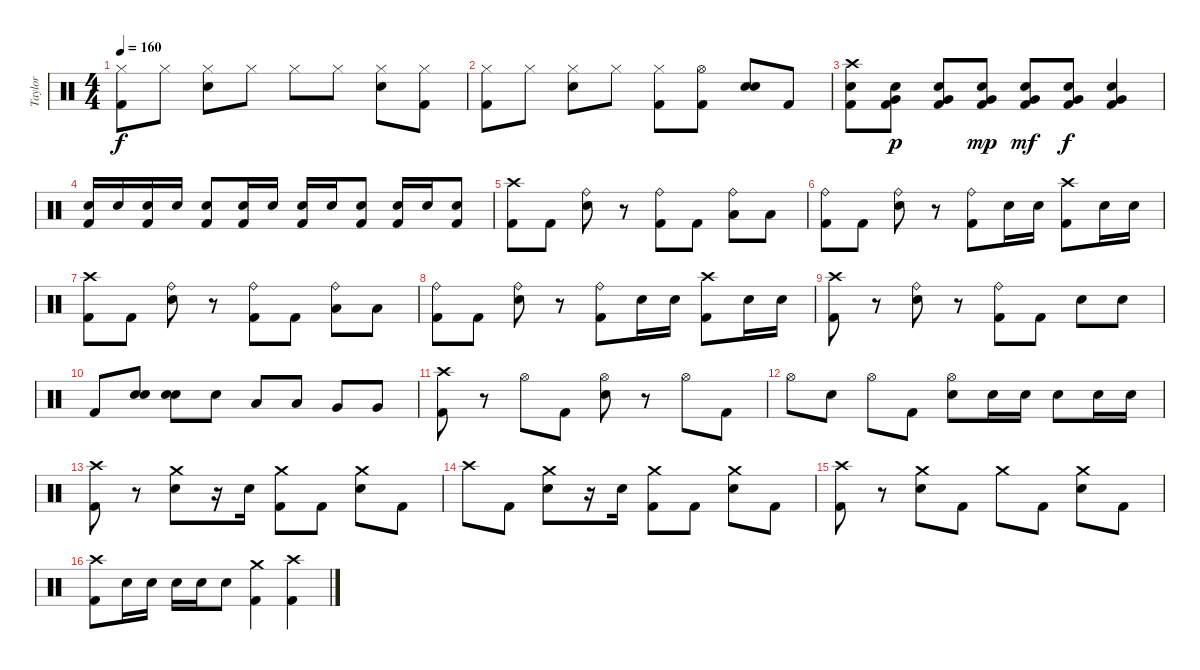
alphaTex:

\track ("Taylor" "Taylor") {instrument percussion}
\staff {score}
\articulation defaults
\ts (4 4)
\tempo 160
\clef neutral
\ks c
("Hi-Hat (closed)" "Kick (hit) 2").8{dy f} "Hi-Hat (closed)".8 ("Hi-Hat (closed)" "Electric Snare (hit)").8 "Hi-Hat (closed)".8 "Hi-Hat (closed)".8 "Hi-Hat (closed)".8 ("Hi-Hat (closed)" "Electric Snare (hit)").8 ("Hi-Hat (closed)" "Kick (hit) 2").8 |
("Hi-Hat (closed)" "Kick (hit) 2").8 "Hi-Hat (closed)".8 ("Hi-Hat (closed)" "Electric Snare (hit)").8 "Hi-Hat (closed)".8 ("Hi-Hat (closed)" "Kick (hit) 2").8 ("Hi-Hat (open)" "Kick (hit) 2").8 ("Electric Snare (hit)" "Electric Snare (hit)").8 "Kick (hit) 2".8 |
("Crash high (hit)" "Electric Snare (hit)" "Kick (hit) 2").8 ("Electric Snare (hit)" "Very Low Tom (hit)" "Kick (hit) 2").8{dy p} ("Electric Snare (hit)" "Very Low Tom (hit)" "Kick (hit) 2").8 ("Electric Snare (hit)" "Very Low Tom (hit)" "Kick (hit) 2").8{dy mp} ("Electric Snare (hit)" "Very Low Tom (hit)" "Kick (hit) 2").8{dy mf} ("Electric Snare (hit)" "Very Low Tom (hit)" "Kick (hit) 2").8{dy f} ("Electric Snare (hit)" "Very Low Tom (hit)" "Kick (hit) 2").4 |
("Electric Snare (hit)" "Kick (hit) 2").16 "Electric Snare (hit)".16 ("Electric Snare (hit)" "Kick (hit) 2").16 "Electric Snare (hit)".16 ("Electric Snare (hit)" "Kick (hit) 2").8 ("Electric Snare (hit)" "Kick (hit) 2").16 "Electric Snare (hit)".16 ("Electric Snare (hit)" "Kick (hit) 2").16 "Electric Snare (hit)".16 ("Electric Snare (hit)" "Kick (hit) 2").8 ("Electric Snare (hit)" "Kick (hit) 2").16 "Electric Snare (hit)".16 ("Electric Snare (hit)" "Kick (hit) 2").8 |
("Crash high (hit)" "Kick (hit) 2").8 "Kick (hit) 2".8 ("Ride (bell)" "Electric Snare (hit)").8 r.8 ("Ride (bell)" "Kick (hit) 2").8 "Kick (hit) 2".8 ("Ride (bell)" "Low Tom (hit)").8 "Low Tom (hit)".8 |
("Ride (bell)" "Kick (hit) 2").8 "Kick (hit) 2".8 ("Ride (bell)" "Electric Snare (hit)").8 r.8 ("Ride (bell)" "Kick (hit) 2").8 "Electric Snare (hit)".16 "Electric Snare (hit)".16 ("Crash high (hit)" "Kick (hit) 2").8 "Electric Snare (hit)".16 "Electric Snare (hit)".16 |
("Crash high (hit)" "Kick (hit) 2").8 "Kick (hit) 2".8 ("Ride (bell)" "Electric Snare (hit)").8 r.8 ("Ride (bell)" "Kick (hit) 2").8 "Kick (hit) 2".8 ("Ride (bell)" "Low Tom (hit)").8 "Low Tom (hit)".8 |
("Ride (bell)" "Kick (hit) 2").8 "Kick (hit) 2".8 ("Ride (bell)" "Electric Snare (hit)").8 r.8 ("Ride (bell)" "Kick (hit) 2").8 "Electric Snare (hit)".16 "Electric Snare (hit)".16 ("Crash high (hit)" "Kick (hit) 2").8 "Electric Snare (hit)".16 "Electric Snare (hit)".16 |
("Crash high (hit)" "Kick (hit) 2").8 r.8 ("Ride (bell)" "Electric Snare (hit)").8 r.8 ("Ride (bell)" "Kick (hit) 2").8 "Kick (hit) 2".8 "Electric Snare (hit)".8 "Electric Snare (hit)".8 |
"Kick (hit) 2".8 ("Electric Snare (hit)" "Electric Snare (hit)").8 ("Electric Snare (hit)" "Electric Snare (hit)").8 "Electric Snare (hit)".8 "Low Tom (hit)".8 "Low Tom (hit)".8 "Very Low Tom (hit)".8 "Very Low Tom (hit)".8 |
("Crash high (hit)" "Kick (hit) 2").8 r.8 "Hi-Hat (open)".8 "Kick (hit) 2".8 ("Hi-Hat (open)" "Electric Snare (hit)").8 r.8 "Hi-Hat (open)".8 "Kick (hit) 2".8 |
"Hi-Hat (open)".8 "Electric Snare (hit)".8 "Hi-Hat (open)".8 "Kick (hit) 2".8 ("Hi-Hat (open)" "Electric Snare (hit)").8 "Electric Snare (hit)".16 "Electric Snare (hit)".16 "Electric Snare (hit)".8 "Electric Snare (hit)".16 "Electric Snare (hit)".16 |
("Crash high (hit)" "Kick (hit) 2").8 r.8 ("Crash medium (hit)" "Electric Snare (hit)").8 r.16 "Electric Snare (hit)".16 ("Crash medium (hit)" "Kick (hit) 2").8 "Kick (hit) 2".8 ("Crash medium (hit)" "Electric Snare (hit)").8 "Kick (hit) 2".8 |
"Crash high (hit)".8 "Kick (hit) 2".8 ("Crash medium (hit)" "Electric Snare (hit)").8 r.16 "Electric Snare (hit)".16 ("Crash medium (hit)" "Kick (hit) 2").8 "Kick (hit) 2".8 ("Crash medium (hit)" "Electric Snare (hit)").8 "Kick (hit) 2".8 |
("Crash high (hit)" "Kick (hit) 2").8 r.8 ("Crash medium (hit)" "Electric Snare (hit)").8 "Kick (hit) 2".8 "Crash medium (hit)".8 "Kick (hit) 2".8 ("Crash medium (hit)" "Electric Snare (hit)").8 "Kick (hit) 2".8 |
("Crash high (hit)" "Kick (hit) 2").8 "Electric Snare (hit)".16 "Electric Snare (hit)".16 "Electric Snare (hit)".16 "Electric Snare (hit)".16 "Electric Snare (hit)".8 ("Crash medium (hit)" "Kick (hit) 2").4 ("Crash high (hit)" "Kick (hit) 2").4
